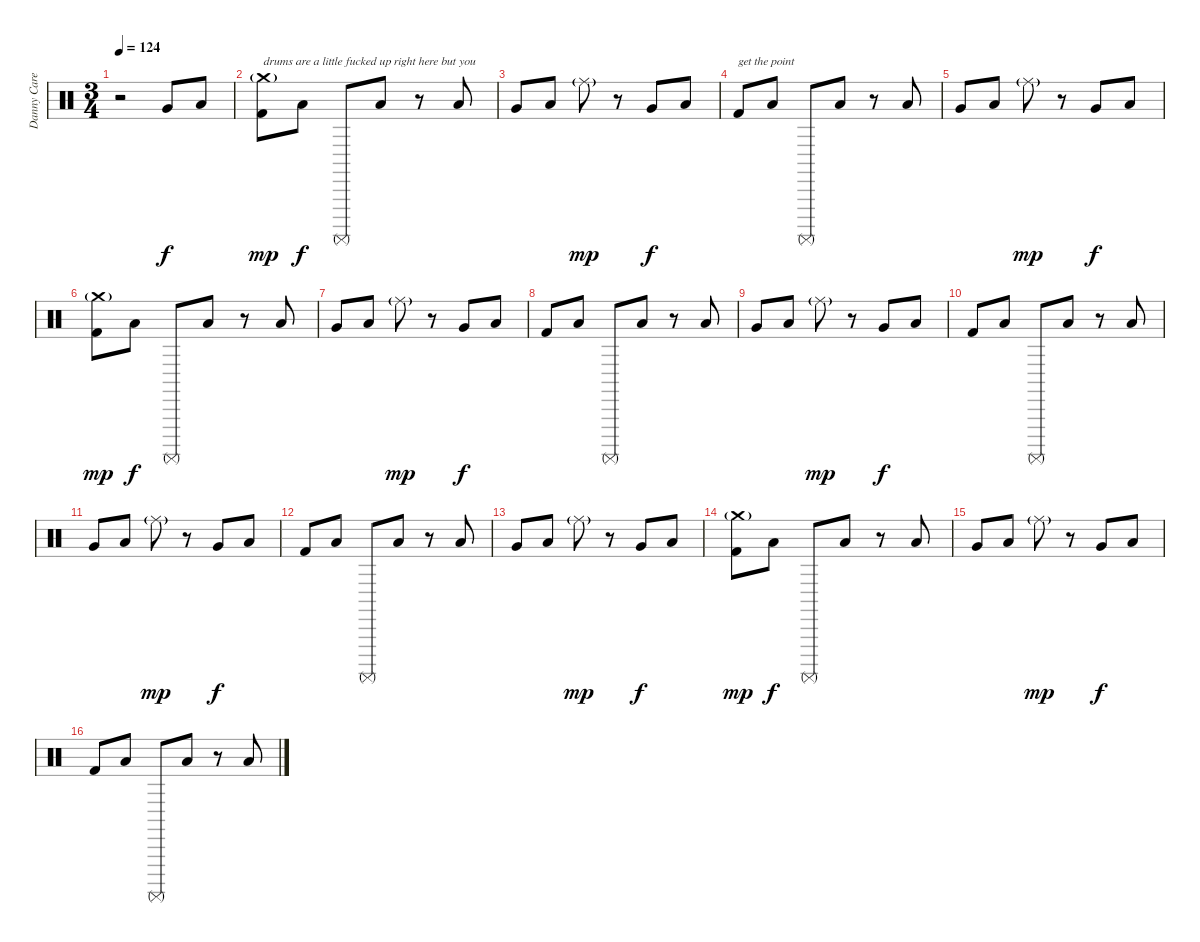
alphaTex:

\track ("Danny Carey" "Danny Care") {instrument percussion}
\staff {score}
\articulation defaults
\ts (3 4)
\tempo 124
\clef neutral
\ks c
r.2{dy f} "Very Low Tom (hit)".8 "Low Tom (hit)".8 |
("Crash medium (hit)"{g} "Kick (hit) 2").8{txt "drums are a little fucked up right here but you" dy mp} "Low Tom (hit)".8{dy f} "Surdo (mute)".8 "Low Tom (hit)".8 r.8 "Low Tom (hit)".8 |
"Very Low Tom (hit)".8 "Low Tom (hit)".8 "Ride (middle)"{g}.8{dy mp} r.8 "Very Low Tom (hit)".8{dy f} "Low Floor Tom (hit)".8 |
"Kick (hit) 2".8{txt "get the point"} "Low Tom (hit)".8 "Surdo (mute)".8 "Low Tom (hit)".8 r.8 "Low Tom (hit)".8 |
"Very Low Tom (hit)".8 "Low Tom (hit)".8 "Ride (middle)"{g}.8{dy mp} r.8 "Very Low Tom (hit)".8{dy f} "Low Floor Tom (hit)".8 |
("Crash medium (hit)"{g} "Kick (hit) 2").8{dy mp} "Low Tom (hit)".8{dy f} "Surdo (mute)".8 "Low Tom (hit)".8 r.8 "Low Tom (hit)".8 |
"Very Low Tom (hit)".8 "Low Tom (hit)".8 "Ride (middle)"{g}.8{dy mp} r.8 "Very Low Tom (hit)".8{dy f} "Low Floor Tom (hit)".8 |
"Kick (hit) 2".8 "Low Tom (hit)".8 "Surdo (mute)".8 "Low Tom (hit)".8 r.8 "Low Tom (hit)".8 |
"Very Low Tom (hit)".8 "Low Tom (hit)".8 "Ride (middle)"{g}.8{dy mp} r.8 "Very Low Tom (hit)".8{dy f} "Low Floor Tom (hit)".8 |
"Kick (hit) 2".8 "Low Tom (hit)".8 "Surdo (mute)".8 "Low Tom (hit)".8 r.8 "Low Tom (hit)".8 |
"Very Low Tom (hit)".8 "Low Tom (hit)".8 "Ride (middle)"{g}.8{dy mp} r.8 "Very Low Tom (hit)".8{dy f} "Low Floor Tom (hit)".8 |
"Kick (hit) 2".8 "Low Tom (hit)".8 "Surdo (mute)".8 "Low Tom (hit)".8 r.8 "Low Tom (hit)".8 |
"Very Low Tom (hit)".8 "Low Tom (hit)".8 "Ride (middle)"{g}.8{dy mp} r.8 "Very Low Tom (hit)".8{dy f} "Low Floor Tom (hit)".8 |
("Crash medium (hit)"{g} "Kick (hit) 2").8{dy mp} "Low Tom (hit)".8{dy f} "Surdo (mute)".8 "Low Tom (hit)".8 r.8 "Low Tom (hit)".8 |
"Very Low Tom (hit)".8 "Low Tom (hit)".8 "Ride (middle)"{g}.8{dy mp} r.8 "Very Low Tom (hit)".8{dy f} "Low Floor Tom (hit)".8 |
"Kick (hit) 2".8 "Low Tom (hit)".8 "Surdo (mute)".8 "Low Tom (hit)".8 r.8 "Low Tom (hit)".8
